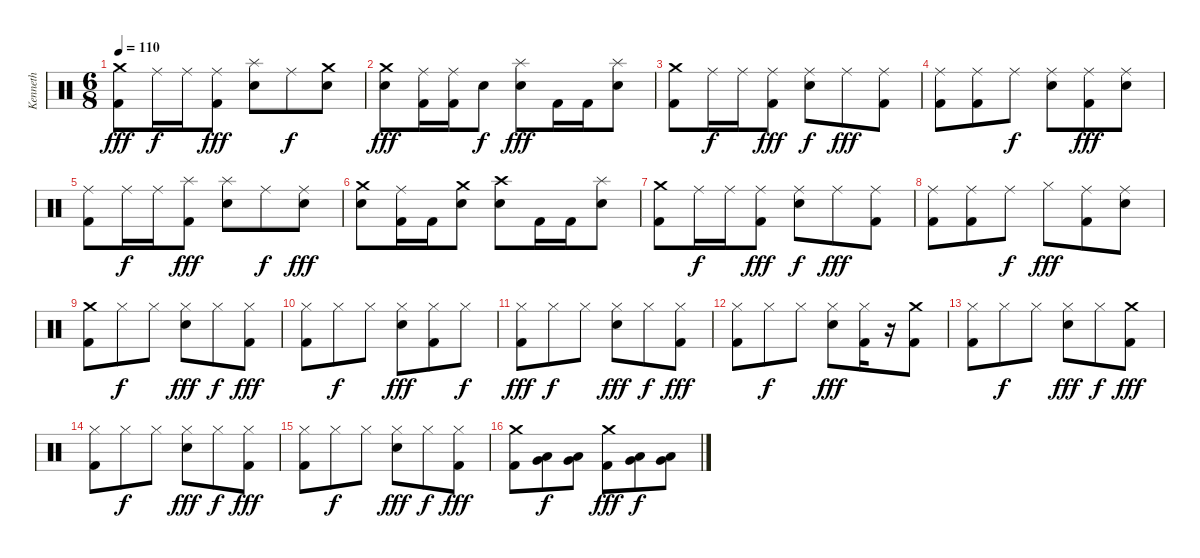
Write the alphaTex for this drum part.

\track ("Kenneth " "Kenneth ") {instrument percussion}
\staff {score}
\articulation defaults
\ts (6 8)
\tempo 110
\clef neutral
\ks c
("Crash medium (hit)" "Kick (hit) 2").8{dy fff} "Ride (middle)".16{dy f} "Ride (middle)".16 ("Ride (middle)" "Kick (hit) 2").8{dy fff} ("Splash (hit)" "Electric Snare (hit)").8 "Ride (middle)".8{dy f} ("Crash medium (hit)" "Electric Snare (hit)").8 |
("Crash medium (hit)" "Electric Snare (hit)").8{dy fff} ("Ride (middle)" "Kick (hit) 2").16 ("Ride (middle)" "Kick (hit) 2").16 "Electric Snare (hit)".8{dy f} ("Splash (hit)" "Electric Snare (hit)").8{dy fff} "Kick (hit) 2".16 "Kick (hit) 2".16 ("Splash (hit)" "Electric Snare (hit)").8 |
("Crash medium (hit)" "Kick (hit) 2").8 "Ride (middle)".16{dy f} "Ride (middle)".16 ("Ride (middle)" "Kick (hit) 2").8{dy fff} ("Ride (middle)" "Electric Snare (hit)").8{dy f} "Ride (middle)".8{dy fff} ("Ride (middle)" "Kick (hit) 2").8 |
("Ride (middle)" "Kick (hit) 2").8 ("Ride (middle)" "Kick (hit) 2").8 "Ride (middle)".8{dy f} ("Ride (middle)" "Electric Snare (hit)").8 ("Ride (middle)" "Kick (hit) 2").8{dy fff} ("Ride (middle)" "Electric Snare (hit)").8 |
("Ride (middle)" "Kick (hit) 2").8 "Ride (middle)".16{dy f} "Ride (middle)".16 ("Splash (hit)" "Kick (hit) 2").8{dy fff} ("Splash (hit)" "Electric Snare (hit)").8 "Ride (middle)".8{dy f} ("Ride (middle)" "Electric Snare (hit)").8{dy fff} |
("Crash medium (hit)" "Electric Snare (hit)").8 ("Ride (middle)" "Kick (hit) 2").16 "Kick (hit) 2".16 ("Crash medium (hit)" "Electric Snare (hit)").8 ("Crash high (hit)" "Electric Snare (hit)").8 "Kick (hit) 2".16 "Kick (hit) 2".16 ("Splash (hit)" "Electric Snare (hit)").8 |
("Crash medium (hit)" "Kick (hit) 2").8 "Ride (middle)".16{dy f} "Ride (middle)".16 ("Ride (middle)" "Kick (hit) 2").8{dy fff} ("Ride (middle)" "Electric Snare (hit)").8{dy f} "Ride (middle)".8{dy fff} ("Ride (middle)" "Kick (hit) 2").8 |
("Ride (middle)" "Kick (hit) 2").8 ("Ride (middle)" "Kick (hit) 2").8 "Ride (middle)".8{dy f} "Hi-Hat (closed)".8{dy fff} ("Ride (middle)" "Kick (hit) 2").8 ("Ride (middle)" "Electric Snare (hit)").8 |
("Crash medium (hit)" "Kick (hit) 2").8 "Hi-Hat (closed)".8{dy f} "Hi-Hat (closed)".8 ("Hi-Hat (closed)" "Electric Snare (hit)").8{dy fff} "Hi-Hat (closed)".8{dy f} ("Hi-Hat (closed)" "Kick (hit) 2").8{dy fff} |
("Hi-Hat (closed)" "Kick (hit) 2").8 "Hi-Hat (closed)".8{dy f} "Hi-Hat (closed)".8 ("Hi-Hat (closed)" "Electric Snare (hit)").8{dy fff} ("Hi-Hat (closed)" "Kick (hit) 2").8 "Hi-Hat (closed)".8{dy f} |
("Hi-Hat (closed)" "Kick (hit) 2").8{dy fff} "Hi-Hat (closed)".8{dy f} "Hi-Hat (closed)".8 ("Hi-Hat (closed)" "Electric Snare (hit)").8{dy fff} "Hi-Hat (closed)".8{dy f} ("Hi-Hat (closed)" "Kick (hit) 2").8{dy fff} |
("Hi-Hat (closed)" "Kick (hit) 2").8 "Hi-Hat (closed)".8{dy f} "Hi-Hat (closed)".8 ("Hi-Hat (closed)" "Electric Snare (hit)").8{dy fff} ("Hi-Hat (closed)" "Kick (hit) 2").16 r.16 ("Crash medium (hit)" "Kick (hit) 2").8 |
("Hi-Hat (closed)" "Kick (hit) 2").8 "Hi-Hat (closed)".8{dy f} "Hi-Hat (closed)".8 ("Hi-Hat (closed)" "Electric Snare (hit)").8{dy fff} "Hi-Hat (closed)".8{dy f} ("Crash medium (hit)" "Kick (hit) 2").8{dy fff} |
("Hi-Hat (closed)" "Kick (hit) 2").8 "Hi-Hat (closed)".8{dy f} "Hi-Hat (closed)".8 ("Hi-Hat (closed)" "Electric Snare (hit)").8{dy fff} "Hi-Hat (closed)".8{dy f} ("Hi-Hat (closed)" "Kick (hit) 2").8{dy fff} |
("Hi-Hat (closed)" "Kick (hit) 2").8 "Hi-Hat (closed)".8{dy f} "Hi-Hat (closed)".8 ("Hi-Hat (closed)" "Electric Snare (hit)").8{dy fff} "Hi-Hat (closed)".8{dy f} ("Hi-Hat (closed)" "Kick (hit) 2").8{dy fff} |
("Crash medium (hit)" "Kick (hit) 2").8 ("Low Tom (hit)" "Very Low Tom (hit)").8{dy f} ("Low Tom (hit)" "Very Low Tom (hit)").8 ("Crash medium (hit)" "Kick (hit) 2").8{dy fff} ("Low Tom (hit)" "Very Low Tom (hit)").8{dy f} ("Low Tom (hit)" "Very Low Tom (hit)").8
